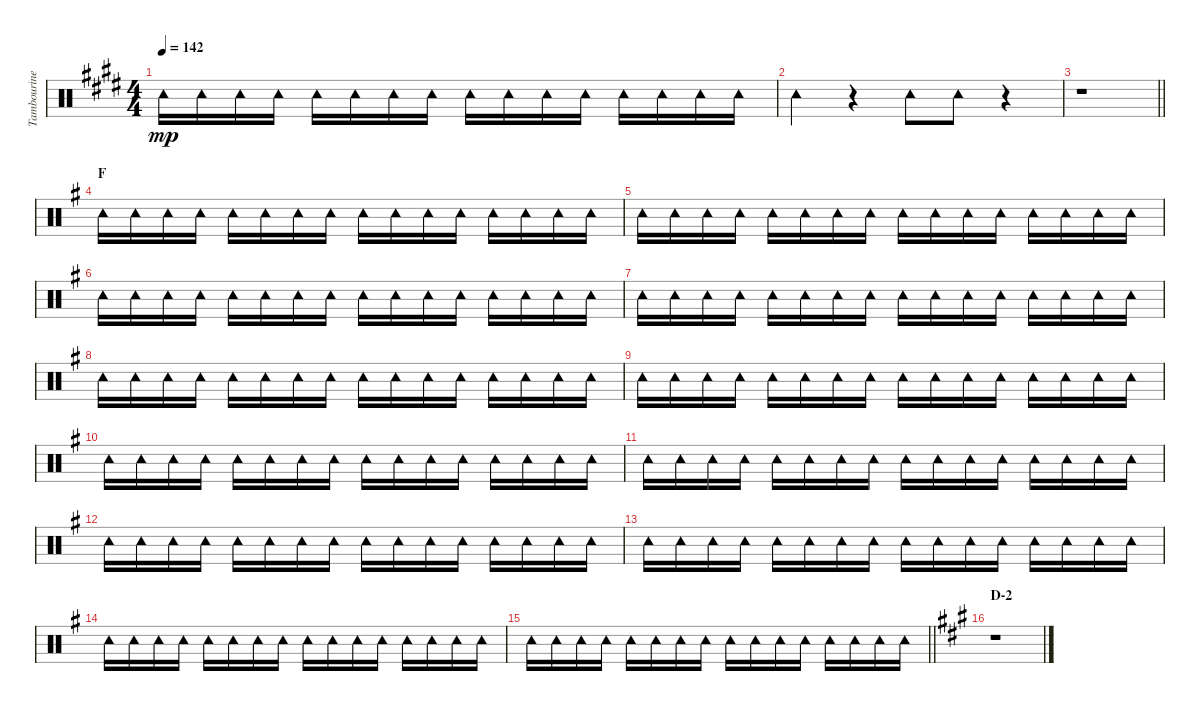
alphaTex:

\track ("Tambourine" "Tambourine") {instrument percussion}
\staff {score}
\articulation defaults
\ts (4 4)
\tempo 142
\clef neutral
\ks e "Tambourine (hit)".16{dy mp} "Tambourine (hit)".16 "Tambourine (hit)".16 "Tambourine (hit)".16 "Tambourine (hit)".16 "Tambourine (hit)".16 "Tambourine (hit)".16 "Tambourine (hit)".16 "Tambourine (hit)".16 "Tambourine (hit)".16 "Tambourine (hit)".16 "Tambourine (hit)".16 "Tambourine (hit)".16 "Tambourine (hit)".16 "Tambourine (hit)".16 "Tambourine (hit)".16
|
"Tambourine (hit)".4 r.4 "Tambourine (hit)".8 "Tambourine (hit)".8 r.4 |
\barLineRight lightlight
r.1 |
\section ("" "F")
\ks g "Tambourine (hit)".16 "Tambourine (hit)".16 "Tambourine (hit)".16 "Tambourine (hit)".16 "Tambourine (hit)".16 "Tambourine (hit)".16 "Tambourine (hit)".16 "Tambourine (hit)".16 "Tambourine (hit)".16 "Tambourine (hit)".16 "Tambourine (hit)".16 "Tambourine (hit)".16 "Tambourine (hit)".16 "Tambourine (hit)".16 "Tambourine (hit)".16 "Tambourine (hit)".16
|
"Tambourine (hit)".16 "Tambourine (hit)".16 "Tambourine (hit)".16 "Tambourine (hit)".16 "Tambourine (hit)".16 "Tambourine (hit)".16 "Tambourine (hit)".16 "Tambourine (hit)".16 "Tambourine (hit)".16 "Tambourine (hit)".16 "Tambourine (hit)".16 "Tambourine (hit)".16 "Tambourine (hit)".16 "Tambourine (hit)".16 "Tambourine (hit)".16 "Tambourine (hit)".16 |
"Tambourine (hit)".16 "Tambourine (hit)".16 "Tambourine (hit)".16 "Tambourine (hit)".16 "Tambourine (hit)".16 "Tambourine (hit)".16 "Tambourine (hit)".16 "Tambourine (hit)".16 "Tambourine (hit)".16 "Tambourine (hit)".16 "Tambourine (hit)".16 "Tambourine (hit)".16 "Tambourine (hit)".16 "Tambourine (hit)".16 "Tambourine (hit)".16 "Tambourine (hit)".16 |
"Tambourine (hit)".16 "Tambourine (hit)".16 "Tambourine (hit)".16 "Tambourine (hit)".16 "Tambourine (hit)".16 "Tambourine (hit)".16 "Tambourine (hit)".16 "Tambourine (hit)".16 "Tambourine (hit)".16 "Tambourine (hit)".16 "Tambourine (hit)".16 "Tambourine (hit)".16 "Tambourine (hit)".16 "Tambourine (hit)".16 "Tambourine (hit)".16 "Tambourine (hit)".16 |
"Tambourine (hit)".16 "Tambourine (hit)".16 "Tambourine (hit)".16 "Tambourine (hit)".16 "Tambourine (hit)".16 "Tambourine (hit)".16 "Tambourine (hit)".16 "Tambourine (hit)".16 "Tambourine (hit)".16 "Tambourine (hit)".16 "Tambourine (hit)".16 "Tambourine (hit)".16 "Tambourine (hit)".16 "Tambourine (hit)".16 "Tambourine (hit)".16 "Tambourine (hit)".16 |
"Tambourine (hit)".16 "Tambourine (hit)".16 "Tambourine (hit)".16 "Tambourine (hit)".16 "Tambourine (hit)".16 "Tambourine (hit)".16 "Tambourine (hit)".16 "Tambourine (hit)".16 "Tambourine (hit)".16 "Tambourine (hit)".16 "Tambourine (hit)".16 "Tambourine (hit)".16 "Tambourine (hit)".16 "Tambourine (hit)".16 "Tambourine (hit)".16 "Tambourine (hit)".16 |
"Tambourine (hit)".16 "Tambourine (hit)".16 "Tambourine (hit)".16 "Tambourine (hit)".16 "Tambourine (hit)".16 "Tambourine (hit)".16 "Tambourine (hit)".16 "Tambourine (hit)".16 "Tambourine (hit)".16 "Tambourine (hit)".16 "Tambourine (hit)".16 "Tambourine (hit)".16 "Tambourine (hit)".16 "Tambourine (hit)".16 "Tambourine (hit)".16 "Tambourine (hit)".16 |
"Tambourine (hit)".16 "Tambourine (hit)".16 "Tambourine (hit)".16 "Tambourine (hit)".16 "Tambourine (hit)".16 "Tambourine (hit)".16 "Tambourine (hit)".16 "Tambourine (hit)".16 "Tambourine (hit)".16 "Tambourine (hit)".16 "Tambourine (hit)".16 "Tambourine (hit)".16 "Tambourine (hit)".16 "Tambourine (hit)".16 "Tambourine (hit)".16 "Tambourine (hit)".16 |
"Tambourine (hit)".16 "Tambourine (hit)".16 "Tambourine (hit)".16 "Tambourine (hit)".16 "Tambourine (hit)".16 "Tambourine (hit)".16 "Tambourine (hit)".16 "Tambourine (hit)".16 "Tambourine (hit)".16 "Tambourine (hit)".16 "Tambourine (hit)".16 "Tambourine (hit)".16 "Tambourine (hit)".16 "Tambourine (hit)".16 "Tambourine (hit)".16 "Tambourine (hit)".16 |
"Tambourine (hit)".16 "Tambourine (hit)".16 "Tambourine (hit)".16 "Tambourine (hit)".16 "Tambourine (hit)".16 "Tambourine (hit)".16 "Tambourine (hit)".16 "Tambourine (hit)".16 "Tambourine (hit)".16 "Tambourine (hit)".16 "Tambourine (hit)".16 "Tambourine (hit)".16 "Tambourine (hit)".16 "Tambourine (hit)".16 "Tambourine (hit)".16 "Tambourine (hit)".16 |
"Tambourine (hit)".16 "Tambourine (hit)".16 "Tambourine (hit)".16 "Tambourine (hit)".16 "Tambourine (hit)".16 "Tambourine (hit)".16 "Tambourine (hit)".16 "Tambourine (hit)".16 "Tambourine (hit)".16 "Tambourine (hit)".16 "Tambourine (hit)".16 "Tambourine (hit)".16 "Tambourine (hit)".16 "Tambourine (hit)".16 "Tambourine (hit)".16 "Tambourine (hit)".16 |
\barLineRight lightlight "Tambourine (hit)".16 "Tambourine (hit)".16 "Tambourine (hit)".16 "Tambourine (hit)".16 "Tambourine (hit)".16 "Tambourine (hit)".16 "Tambourine (hit)".16 "Tambourine (hit)".16 "Tambourine (hit)".16 "Tambourine (hit)".16 "Tambourine (hit)".16 "Tambourine (hit)".16 "Tambourine (hit)".16 "Tambourine (hit)".16 "Tambourine (hit)".16 "Tambourine (hit)".16
|
\section ("" "D-2")
\ks a
r.1
